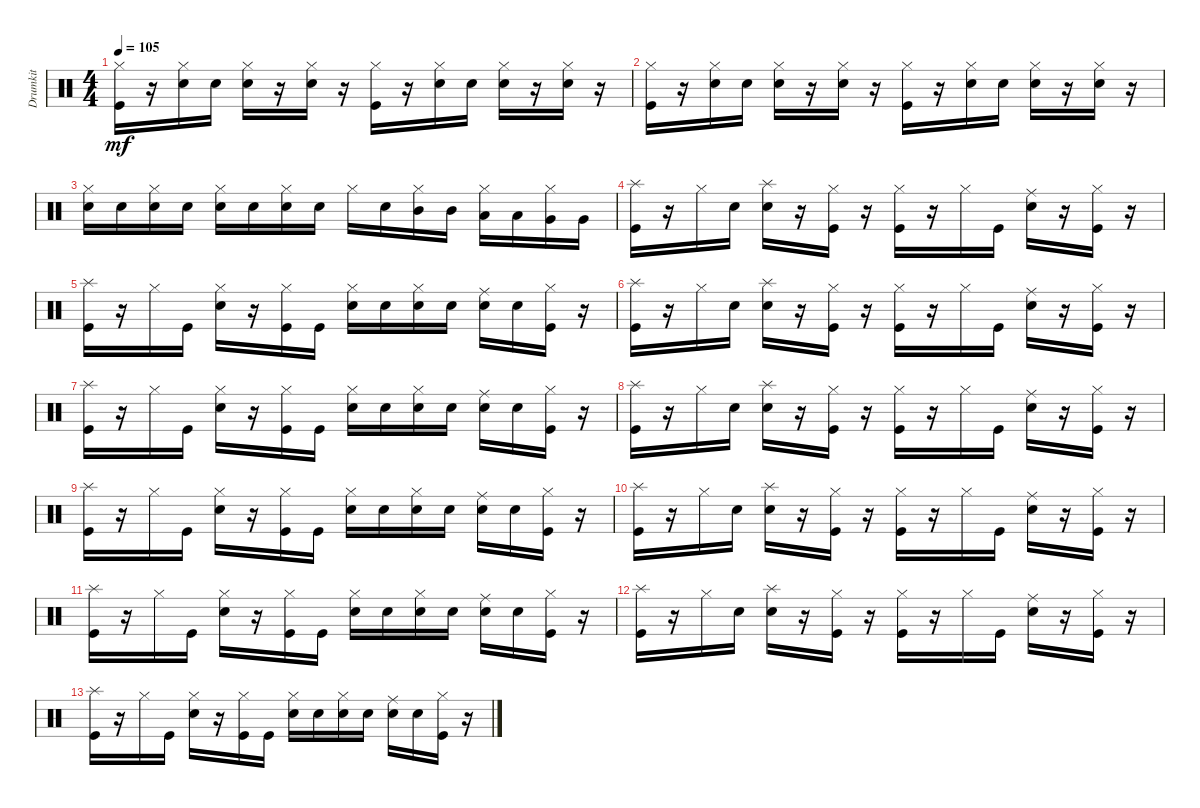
\track ("Drumkit" "Drumkit") {instrument percussion}
\staff {score}
\articulation defaults
\ts (4 4)
\tempo 105
\clef neutral
\ks c
("Hi-Hat (closed)" "Kick (hit)").16{dy mf} r.16 ("Hi-Hat (closed)" "Snare (hit) 2").16 "Snare (hit) 2".16 ("Hi-Hat (closed)" "Snare (hit) 2").16 r.16 ("Hi-Hat (closed)" "Snare (hit) 2").16 r.16 ("Hi-Hat (closed)" "Kick (hit)").16 r.16 ("Hi-Hat (closed)" "Snare (hit) 2").16 "Snare (hit) 2".16 ("Hi-Hat (closed)" "Snare (hit) 2").16 r.16 ("Hi-Hat (closed)" "Snare (hit) 2").16 r.16 |
("Hi-Hat (closed)" "Kick (hit)").16 r.16 ("Hi-Hat (closed)" "Snare (hit) 2").16 "Snare (hit) 2".16 ("Hi-Hat (closed)" "Snare (hit) 2").16 r.16 ("Hi-Hat (closed)" "Snare (hit) 2").16 r.16 ("Hi-Hat (closed)" "Kick (hit)").16 r.16 ("Hi-Hat (closed)" "Snare (hit) 2").16 "Snare (hit) 2".16 ("Hi-Hat (closed)" "Snare (hit) 2").16 r.16 ("Hi-Hat (closed)" "Snare (hit) 2").16 r.16 |
("Snare (hit) 2" "Hi-Hat (closed)").16 "Snare (hit) 2".16 ("Snare (hit) 2" "Hi-Hat (closed)").16 "Snare (hit) 2".16 ("Snare (hit) 2" "Hi-Hat (closed)").16 "Snare (hit) 2".16 ("Snare (hit) 2" "Hi-Hat (closed)").16 "Snare (hit) 2".16 "Hi-Hat (closed)".16 "Snare (hit) 2".16 ("Hi-Hat (closed)" "Mid Tom (hit)").16 "Mid Tom (hit)".16 ("Low Tom (hit)" "Hi-Hat (closed)").16 "Low Tom (hit)".16 ("Very Low Tom (hit)" "Hi-Hat (closed)").16 "Very Low Tom (hit)".16 |
("Splash (hit)" "Kick (hit)").16 r.16 "Hi-Hat (closed)".16 "Snare (hit) 2".16 ("Splash (hit)" "Snare (hit) 2").16 r.16 ("Hi-Hat (closed)" "Kick (hit)").16 r.16 ("Hi-Hat (closed)" "Kick (hit)").16 r.16 "Hi-Hat (closed)".16 "Kick (hit)".16 ("Ride (middle)" "Snare (hit) 2").16 r.16 ("Hi-Hat (closed)" "Kick (hit)").16 r.16 |
("Splash (hit)" "Kick (hit)").16 r.16 "Hi-Hat (closed)".16 "Kick (hit)".16 ("Snare (hit) 2" "Hi-Hat (closed)").16 r.16 ("Hi-Hat (closed)" "Kick (hit)").16 "Kick (hit)".16 ("Hi-Hat (closed)" "Snare (hit) 2").16 "Snare (hit) 2".16 ("Hi-Hat (closed)" "Snare (hit) 2").16 "Snare (hit) 2".16 ("Ride (middle)" "Snare (hit) 2").16 "Snare (hit) 2".16 ("Hi-Hat (closed)" "Kick (hit)").16 r.16 |
("Splash (hit)" "Kick (hit)").16 r.16 "Hi-Hat (closed)".16 "Snare (hit) 2".16 ("Splash (hit)" "Snare (hit) 2").16 r.16 ("Hi-Hat (closed)" "Kick (hit)").16 r.16 ("Hi-Hat (closed)" "Kick (hit)").16 r.16 "Hi-Hat (closed)".16 "Kick (hit)".16 ("Ride (middle)" "Snare (hit) 2").16 r.16 ("Hi-Hat (closed)" "Kick (hit)").16 r.16 |
("Splash (hit)" "Kick (hit)").16 r.16 "Hi-Hat (closed)".16 "Kick (hit)".16 ("Snare (hit) 2" "Hi-Hat (closed)").16 r.16 ("Hi-Hat (closed)" "Kick (hit)").16 "Kick (hit)".16 ("Hi-Hat (closed)" "Snare (hit) 2").16 "Snare (hit) 2".16 ("Hi-Hat (closed)" "Snare (hit) 2").16 "Snare (hit) 2".16 ("Ride (middle)" "Snare (hit) 2").16 "Snare (hit) 2".16 ("Hi-Hat (closed)" "Kick (hit)").16 r.16 |
("Splash (hit)" "Kick (hit)").16 r.16 "Hi-Hat (closed)".16 "Snare (hit) 2".16 ("Splash (hit)" "Snare (hit) 2").16 r.16 ("Hi-Hat (closed)" "Kick (hit)").16 r.16 ("Hi-Hat (closed)" "Kick (hit)").16 r.16 "Hi-Hat (closed)".16 "Kick (hit)".16 ("Ride (middle)" "Snare (hit) 2").16 r.16 ("Hi-Hat (closed)" "Kick (hit)").16 r.16 |
("Splash (hit)" "Kick (hit)").16 r.16 "Hi-Hat (closed)".16 "Kick (hit)".16 ("Snare (hit) 2" "Hi-Hat (closed)").16 r.16 ("Hi-Hat (closed)" "Kick (hit)").16 "Kick (hit)".16 ("Hi-Hat (closed)" "Snare (hit) 2").16 "Snare (hit) 2".16 ("Hi-Hat (closed)" "Snare (hit) 2").16 "Snare (hit) 2".16 ("Ride (middle)" "Snare (hit) 2").16 "Snare (hit) 2".16 ("Hi-Hat (closed)" "Kick (hit)").16 r.16 |
("Splash (hit)" "Kick (hit)").16 r.16 "Hi-Hat (closed)".16 "Snare (hit) 2".16 ("Splash (hit)" "Snare (hit) 2").16 r.16 ("Hi-Hat (closed)" "Kick (hit)").16 r.16 ("Hi-Hat (closed)" "Kick (hit)").16 r.16 "Hi-Hat (closed)".16 "Kick (hit)".16 ("Ride (middle)" "Snare (hit) 2").16 r.16 ("Hi-Hat (closed)" "Kick (hit)").16 r.16 |
("Splash (hit)" "Kick (hit)").16 r.16 "Hi-Hat (closed)".16 "Kick (hit)".16 ("Snare (hit) 2" "Hi-Hat (closed)").16 r.16 ("Hi-Hat (closed)" "Kick (hit)").16 "Kick (hit)".16 ("Hi-Hat (closed)" "Snare (hit) 2").16 "Snare (hit) 2".16 ("Hi-Hat (closed)" "Snare (hit) 2").16 "Snare (hit) 2".16 ("Ride (middle)" "Snare (hit) 2").16 "Snare (hit) 2".16 ("Hi-Hat (closed)" "Kick (hit)").16 r.16 |
("Splash (hit)" "Kick (hit)").16 r.16 "Hi-Hat (closed)".16 "Snare (hit) 2".16 ("Splash (hit)" "Snare (hit) 2").16 r.16 ("Hi-Hat (closed)" "Kick (hit)").16 r.16 ("Hi-Hat (closed)" "Kick (hit)").16 r.16 "Hi-Hat (closed)".16 "Kick (hit)".16 ("Ride (middle)" "Snare (hit) 2").16 r.16 ("Hi-Hat (closed)" "Kick (hit)").16 r.16 |
("Splash (hit)" "Kick (hit)").16 r.16 "Hi-Hat (closed)".16 "Kick (hit)".16 ("Snare (hit) 2" "Hi-Hat (closed)").16 r.16 ("Hi-Hat (closed)" "Kick (hit)").16 "Kick (hit)".16 ("Hi-Hat (closed)" "Snare (hit) 2").16 "Snare (hit) 2".16 ("Hi-Hat (closed)" "Snare (hit) 2").16 "Snare (hit) 2".16 ("Ride (middle)" "Snare (hit) 2").16 "Snare (hit) 2".16 ("Hi-Hat (closed)" "Kick (hit)").16 r.16
